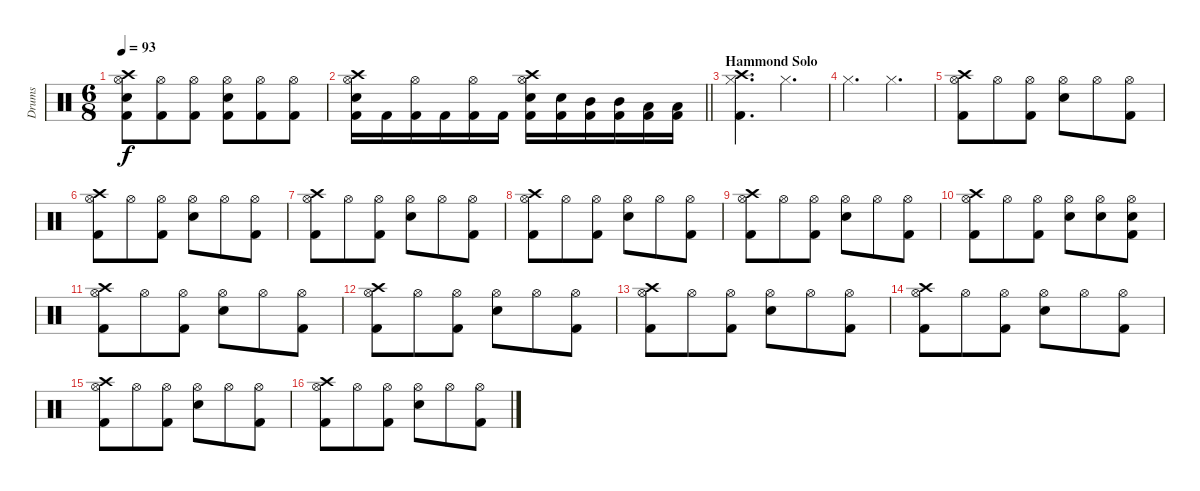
\track ("Drums" "Drums") {instrument percussion}
\staff {score}
\articulation defaults
\ts (6 8)
\tempo 93
\clef neutral
\ks c
("Crash high (hit)" "Hi-Hat (open)" "Snare (hit) 2" "Kick (hit) 2").8{dy f} ("Hi-Hat (open)" "Kick (hit) 2").8 ("Hi-Hat (open)" "Kick (hit) 2").8 ("Hi-Hat (open)" "Snare (hit) 2" "Kick (hit) 2").8 ("Hi-Hat (open)" "Kick (hit) 2").8 ("Hi-Hat (open)" "Kick (hit) 2").8 |
\barLineRight lightlight
("Crash high (hit)" "Hi-Hat (open)" "Snare (hit) 2" "Kick (hit) 2").16 "Kick (hit) 2".16 ("Hi-Hat (open)" "Kick (hit) 2").16 "Kick (hit) 2".16 ("Hi-Hat (open)" "Kick (hit) 2").16 "Kick (hit) 2".16 ("Crash high (hit)" "Hi-Hat (open)" "Snare (hit) 2" "Kick (hit) 2").16 ("Snare (hit) 2" "Kick (hit) 2").16 ("Mid Tom (hit)" "Kick (hit) 2").16 ("Mid Tom (hit)" "Kick (hit) 2").16 ("Low Tom (hit)" "Kick (hit) 2").16 ("Low Tom (hit)" "Kick (hit) 2").16 |
\section ("" "Hammond Solo")
("Crash high (hit)" "Hi-Hat (closed)" "Kick (hit) 2").4{d} "Hi-Hat (closed)".4{d} |
"Hi-Hat (closed)".4{d} "Hi-Hat (closed)".4{d} |
("Crash high (hit)" "Hi-Hat (open)" "Kick (hit) 2").8 "Hi-Hat (open)".8 ("Hi-Hat (open)" "Kick (hit) 2").8 ("Hi-Hat (open)" "Snare (hit) 2").8 "Hi-Hat (open)".8 ("Hi-Hat (open)" "Kick (hit) 2").8 |
("Crash high (hit)" "Hi-Hat (open)" "Kick (hit) 2").8 "Hi-Hat (open)".8 ("Hi-Hat (open)" "Kick (hit) 2").8 ("Hi-Hat (open)" "Snare (hit) 2").8 "Hi-Hat (open)".8 ("Hi-Hat (open)" "Kick (hit) 2").8 |
("Crash high (hit)" "Hi-Hat (open)" "Kick (hit) 2").8 "Hi-Hat (open)".8 ("Hi-Hat (open)" "Kick (hit) 2").8 ("Hi-Hat (open)" "Snare (hit) 2").8 "Hi-Hat (open)".8 ("Hi-Hat (open)" "Kick (hit) 2").8 |
("Crash high (hit)" "Hi-Hat (open)" "Kick (hit) 2").8 "Hi-Hat (open)".8 ("Hi-Hat (open)" "Kick (hit) 2").8 ("Hi-Hat (open)" "Snare (hit) 2").8 "Hi-Hat (open)".8 ("Hi-Hat (open)" "Kick (hit) 2").8 |
("Crash high (hit)" "Hi-Hat (open)" "Kick (hit) 2").8 "Hi-Hat (open)".8 ("Hi-Hat (open)" "Kick (hit) 2").8 ("Hi-Hat (open)" "Snare (hit) 2").8 "Hi-Hat (open)".8 ("Hi-Hat (open)" "Kick (hit) 2").8 |
("Crash high (hit)" "Hi-Hat (open)" "Kick (hit) 2").8 "Hi-Hat (open)".8 ("Hi-Hat (open)" "Kick (hit) 2").8 ("Hi-Hat (open)" "Snare (hit) 2").8 ("Hi-Hat (open)" "Snare (hit) 2").8 ("Hi-Hat (open)" "Snare (hit) 2" "Kick (hit) 2").8 |
("Crash high (hit)" "Hi-Hat (open)" "Kick (hit) 2").8 "Hi-Hat (open)".8 ("Hi-Hat (open)" "Kick (hit) 2").8 ("Hi-Hat (open)" "Snare (hit) 2").8 "Hi-Hat (open)".8 ("Hi-Hat (open)" "Kick (hit) 2").8 |
("Crash high (hit)" "Hi-Hat (open)" "Kick (hit) 2").8 "Hi-Hat (open)".8 ("Hi-Hat (open)" "Kick (hit) 2").8 ("Hi-Hat (open)" "Snare (hit) 2").8 "Hi-Hat (open)".8 ("Hi-Hat (open)" "Kick (hit) 2").8 |
("Crash high (hit)" "Hi-Hat (open)" "Kick (hit) 2").8 "Hi-Hat (open)".8 ("Hi-Hat (open)" "Kick (hit) 2").8 ("Hi-Hat (open)" "Snare (hit) 2").8 "Hi-Hat (open)".8 ("Hi-Hat (open)" "Kick (hit) 2").8 |
("Crash high (hit)" "Hi-Hat (open)" "Kick (hit) 2").8 "Hi-Hat (open)".8 ("Hi-Hat (open)" "Kick (hit) 2").8 ("Hi-Hat (open)" "Snare (hit) 2").8 "Hi-Hat (open)".8 ("Hi-Hat (open)" "Kick (hit) 2").8 |
("Crash high (hit)" "Hi-Hat (open)" "Kick (hit) 2").8 "Hi-Hat (open)".8 ("Hi-Hat (open)" "Kick (hit) 2").8 ("Hi-Hat (open)" "Snare (hit) 2").8 "Hi-Hat (open)".8 ("Hi-Hat (open)" "Kick (hit) 2").8 |
("Crash high (hit)" "Hi-Hat (open)" "Kick (hit) 2").8 "Hi-Hat (open)".8 ("Hi-Hat (open)" "Kick (hit) 2").8 ("Hi-Hat (open)" "Snare (hit) 2").8 "Hi-Hat (open)".8 ("Hi-Hat (open)" "Kick (hit) 2").8
